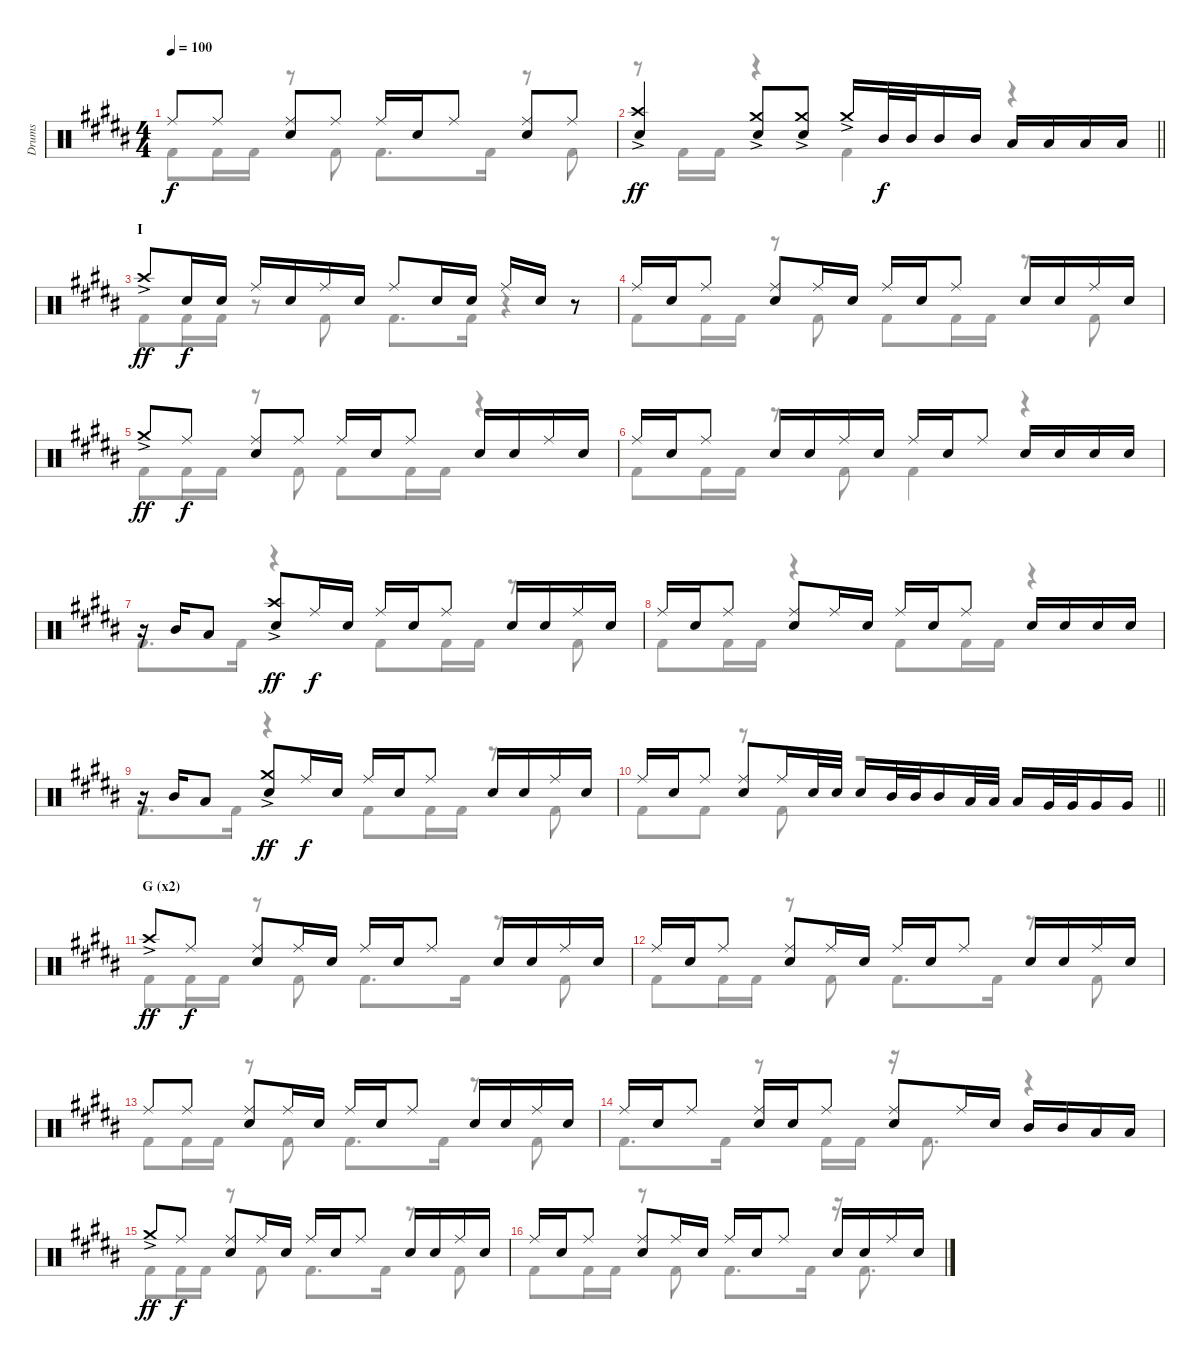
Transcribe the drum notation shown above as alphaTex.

\track ("Drums" "Drums") {instrument percussion}
\staff {score}
\articulation defaults
\voice
\ts (4 4)
\tempo 100
\clef neutral
\ks b "Ride (middle)".8{dy f} "Ride (middle)".8
("Ride (middle)" "Electric Snare (hit)").8 "Ride (middle)".8 "Ride (middle)".16 "Electric Snare (hit)".16 "Ride (middle)".8 ("Ride (middle)" "Electric Snare (hit)").8 "Ride (middle)".8 |
\barLineRight lightlight
("Crash high (hit)"{ac} "Electric Snare (hit)").4{dy ff} ("Crash medium (hit)"{ac} "Electric Snare (hit)").8 ("Crash medium (hit)"{ac} "Electric Snare (hit)").8 "Crash medium (hit)"{ac}.16 "Mid Tom (hit)".32{dy f} "Mid Tom (hit)".32 "Mid Tom (hit)".16 "Mid Tom (hit)".16 "Low Tom (hit)".16 "Low Tom (hit)".16 "Low Tom (hit)".16 "Low Tom (hit)".16 |
\section ("" "I")
"Crash high (hit)"{ac}.8{dy ff} "Electric Snare (hit)".16{dy f} "Electric Snare (hit)".16 "Ride (middle)".16 "Electric Snare (hit)".16 "Ride (middle)".16 "Electric Snare (hit)".16 "Ride (middle)".8 "Electric Snare (hit)".16 "Electric Snare (hit)".16 "Ride (middle)".16 "Electric Snare (hit)".16 r.8 |
"Ride (middle)".16 "Electric Snare (hit)".16 "Ride (middle)".8 ("Ride (middle)" "Electric Snare (hit)").8 "Ride (middle)".16 "Electric Snare (hit)".16 "Ride (middle)".16 "Electric Snare (hit)".16 "Ride (middle)".8 "Electric Snare (hit)".16 "Electric Snare (hit)".16 "Ride (middle)".16 "Electric Snare (hit)".16 |
"Crash medium (hit)"{ac}.8{dy ff} "Ride (middle)".8{dy f} ("Ride (middle)" "Electric Snare (hit)").8 "Ride (middle)".8 "Ride (middle)".16 "Electric Snare (hit)".16 "Ride (middle)".8 "Electric Snare (hit)".16 "Electric Snare (hit)".16 "Ride (middle)".16 "Electric Snare (hit)".16 |
"Ride (middle)".16 "Electric Snare (hit)".16 "Ride (middle)".8 "Electric Snare (hit)".16 "Electric Snare (hit)".16 "Ride (middle)".16 "Electric Snare (hit)".16 "Ride (middle)".16 "Electric Snare (hit)".16 "Ride (middle)".8 "Electric Snare (hit)".16 "Electric Snare (hit)".16 "Electric Snare (hit)".16 "Electric Snare (hit)".16 |
r.16 "Mid Tom (hit)".16 "Low Tom (hit)".8 ("Crash high (hit)"{ac} "Electric Snare (hit)").8{dy ff} "Ride (middle)".16{dy f} "Electric Snare (hit)".16 "Ride (middle)".16 "Electric Snare (hit)".16 "Ride (middle)".8 "Electric Snare (hit)".16 "Electric Snare (hit)".16 "Ride (middle)".16 "Electric Snare (hit)".16 |
"Ride (middle)".16 "Electric Snare (hit)".16 "Ride (middle)".8 ("Ride (middle)" "Electric Snare (hit)").8 "Ride (middle)".16 "Electric Snare (hit)".16 "Ride (middle)".16 "Electric Snare (hit)".16 "Ride (middle)".8 "Electric Snare (hit)".16 "Electric Snare (hit)".16 "Electric Snare (hit)".16 "Electric Snare (hit)".16 |
r.16 "Mid Tom (hit)".16 "Low Tom (hit)".8 ("Crash medium (hit)"{ac} "Electric Snare (hit)").8{dy ff} "Ride (middle)".16{dy f} "Electric Snare (hit)".16 "Ride (middle)".16 "Electric Snare (hit)".16 "Ride (middle)".8 "Electric Snare (hit)".16 "Electric Snare (hit)".16 "Ride (middle)".16 "Electric Snare (hit)".16 |
\barLineRight lightlight "Ride (middle)".16 "Electric Snare (hit)".16 "Ride (middle)".8
("Ride (middle)" "Electric Snare (hit)").8 "Ride (middle)".16 "Electric Snare (hit)".32 "Electric Snare (hit)".32 "Electric Snare (hit)".16 "Mid Tom (hit)".32 "Mid Tom (hit)".32 "Mid Tom (hit)".16 "Low Tom (hit)".32 "Low Tom (hit)".32 "Low Tom (hit)".16 "Very Low Tom (hit)".32 "Very Low Tom (hit)".32 "Very Low Tom (hit)".16 "Very Low Tom (hit)".16 |
\section ("" "G (x2)")
"Crash high (hit)"{ac}.8{dy ff} "Ride (middle)".8{dy f} ("Ride (middle)" "Electric Snare (hit)").8 "Ride (middle)".16 "Electric Snare (hit)".16 "Ride (middle)".16 "Electric Snare (hit)".16 "Ride (middle)".8 "Electric Snare (hit)".16 "Electric Snare (hit)".16 "Ride (middle)".16 "Electric Snare (hit)".16 |
"Ride (middle)".16 "Electric Snare (hit)".16 "Ride (middle)".8 ("Ride (middle)" "Electric Snare (hit)").8 "Ride (middle)".16 "Electric Snare (hit)".16 "Ride (middle)".16 "Electric Snare (hit)".16 "Ride (middle)".8 "Electric Snare (hit)".16 "Electric Snare (hit)".16 "Ride (middle)".16 "Electric Snare (hit)".16 |
"Ride (middle)".8 "Ride (middle)".8 ("Ride (middle)" "Electric Snare (hit)").8 "Ride (middle)".16 "Electric Snare (hit)".16 "Ride (middle)".16 "Electric Snare (hit)".16 "Ride (middle)".8 "Electric Snare (hit)".16 "Electric Snare (hit)".16 "Ride (middle)".16 "Electric Snare (hit)".16 |
"Ride (middle)".16 "Electric Snare (hit)".16 "Ride (middle)".8 ("Ride (middle)" "Electric Snare (hit)").16 "Electric Snare (hit)".16 "Ride (middle)".8 ("Ride (middle)" "Electric Snare (hit)").8 "Ride (middle)".16 "Electric Snare (hit)".16 "Mid Tom (hit)".16 "Mid Tom (hit)".16 "Low Tom (hit)".16 "Low Tom (hit)".16 |
"Crash medium (hit)"{ac}.8{dy ff} "Ride (middle)".8{dy f} ("Ride (middle)" "Electric Snare (hit)").8 "Ride (middle)".16 "Electric Snare (hit)".16 "Ride (middle)".16 "Electric Snare (hit)".16 "Ride (middle)".8 "Electric Snare (hit)".16 "Electric Snare (hit)".16 "Ride (middle)".16 "Electric Snare (hit)".16 |
"Ride (middle)".16 "Electric Snare (hit)".16 "Ride (middle)".8 ("Ride (middle)" "Electric Snare (hit)").8 "Ride (middle)".16 "Electric Snare (hit)".16 "Ride (middle)".16 "Electric Snare (hit)".16 "Ride (middle)".8 "Electric Snare (hit)".16 "Electric Snare (hit)".16 "Ride (middle)".16 "Electric Snare (hit)".16
\voice
\clef neutral
\ottava regular
\simile none
\ks b "Kick (hit) 2".8{dy f} "Kick (hit) 2".16 "Kick (hit) 2".16
r.8 "Kick (hit) 2".8 "Kick (hit) 2".8{d} "Kick (hit) 2".16 r.8 "Kick (hit) 2".8 |
\barLineRight lightlight
r.8 "Kick (hit) 2".16 "Kick (hit) 2".16 r.4 "Kick (hit) 2".4 r.4 |
"Kick (hit) 2".8 "Kick (hit) 2".16 "Kick (hit) 2".16 r.8 "Kick (hit) 2".8 "Kick (hit) 2".8{d} "Kick (hit) 2".16 r.4 |
"Kick (hit) 2".8 "Kick (hit) 2".16 "Kick (hit) 2".16 r.8 "Kick (hit) 2".8 "Kick (hit) 2".8 "Kick (hit) 2".16 "Kick (hit) 2".16 r.8 "Kick (hit) 2".8 |
"Kick (hit) 2".8 "Kick (hit) 2".16 "Kick (hit) 2".16 r.8 "Kick (hit) 2".8 "Kick (hit) 2".8 "Kick (hit) 2".16 "Kick (hit) 2".16 r.4 |
"Kick (hit) 2".8 "Kick (hit) 2".16 "Kick (hit) 2".16 r.8 "Kick (hit) 2".8 "Kick (hit) 2".4 r.4 |
"Kick (hit) 2".8{d} "Kick (hit) 2".16 r.4 "Kick (hit) 2".8 "Kick (hit) 2".16 "Kick (hit) 2".16 r.8 "Kick (hit) 2".8 |
"Kick (hit) 2".8 "Kick (hit) 2".16 "Kick (hit) 2".16 r.4 "Kick (hit) 2".8 "Kick (hit) 2".16 "Kick (hit) 2".16 r.4 |
"Kick (hit) 2".8{d} "Kick (hit) 2".16 r.4 "Kick (hit) 2".8 "Kick (hit) 2".16 "Kick (hit) 2".16 r.8 "Kick (hit) 2".8 |
\barLineRight lightlight "Kick (hit) 2".8 "Kick (hit) 2".8
r.8 "Kick (hit) 2".8 r.2 |
"Kick (hit) 2".8 "Kick (hit) 2".16 "Kick (hit) 2".16 r.8 "Kick (hit) 2".8 "Kick (hit) 2".8{d} "Kick (hit) 2".16 r.8 "Kick (hit) 2".8 |
"Kick (hit) 2".8 "Kick (hit) 2".16 "Kick (hit) 2".16 r.8 "Kick (hit) 2".8 "Kick (hit) 2".8{d} "Kick (hit) 2".16 r.8 "Kick (hit) 2".8 |
"Kick (hit) 2".8 "Kick (hit) 2".16 "Kick (hit) 2".16 r.8 "Kick (hit) 2".8 "Kick (hit) 2".8{d} "Kick (hit) 2".16 r.8 "Kick (hit) 2".8 |
"Kick (hit) 2".8{d} "Kick (hit) 2".16 r.8 "Kick (hit) 2".16 "Kick (hit) 2".16 r.16 "Kick (hit) 2".8{d} r.4 |
"Kick (hit) 2".8 "Kick (hit) 2".16 "Kick (hit) 2".16 r.8 "Kick (hit) 2".8 "Kick (hit) 2".8{d} "Kick (hit) 2".16 r.8 "Kick (hit) 2".8 |
"Kick (hit) 2".8 "Kick (hit) 2".16 "Kick (hit) 2".16 r.8 "Kick (hit) 2".8 "Kick (hit) 2".8{d} "Kick (hit) 2".16 r.16 "Kick (hit) 2".8{d}
